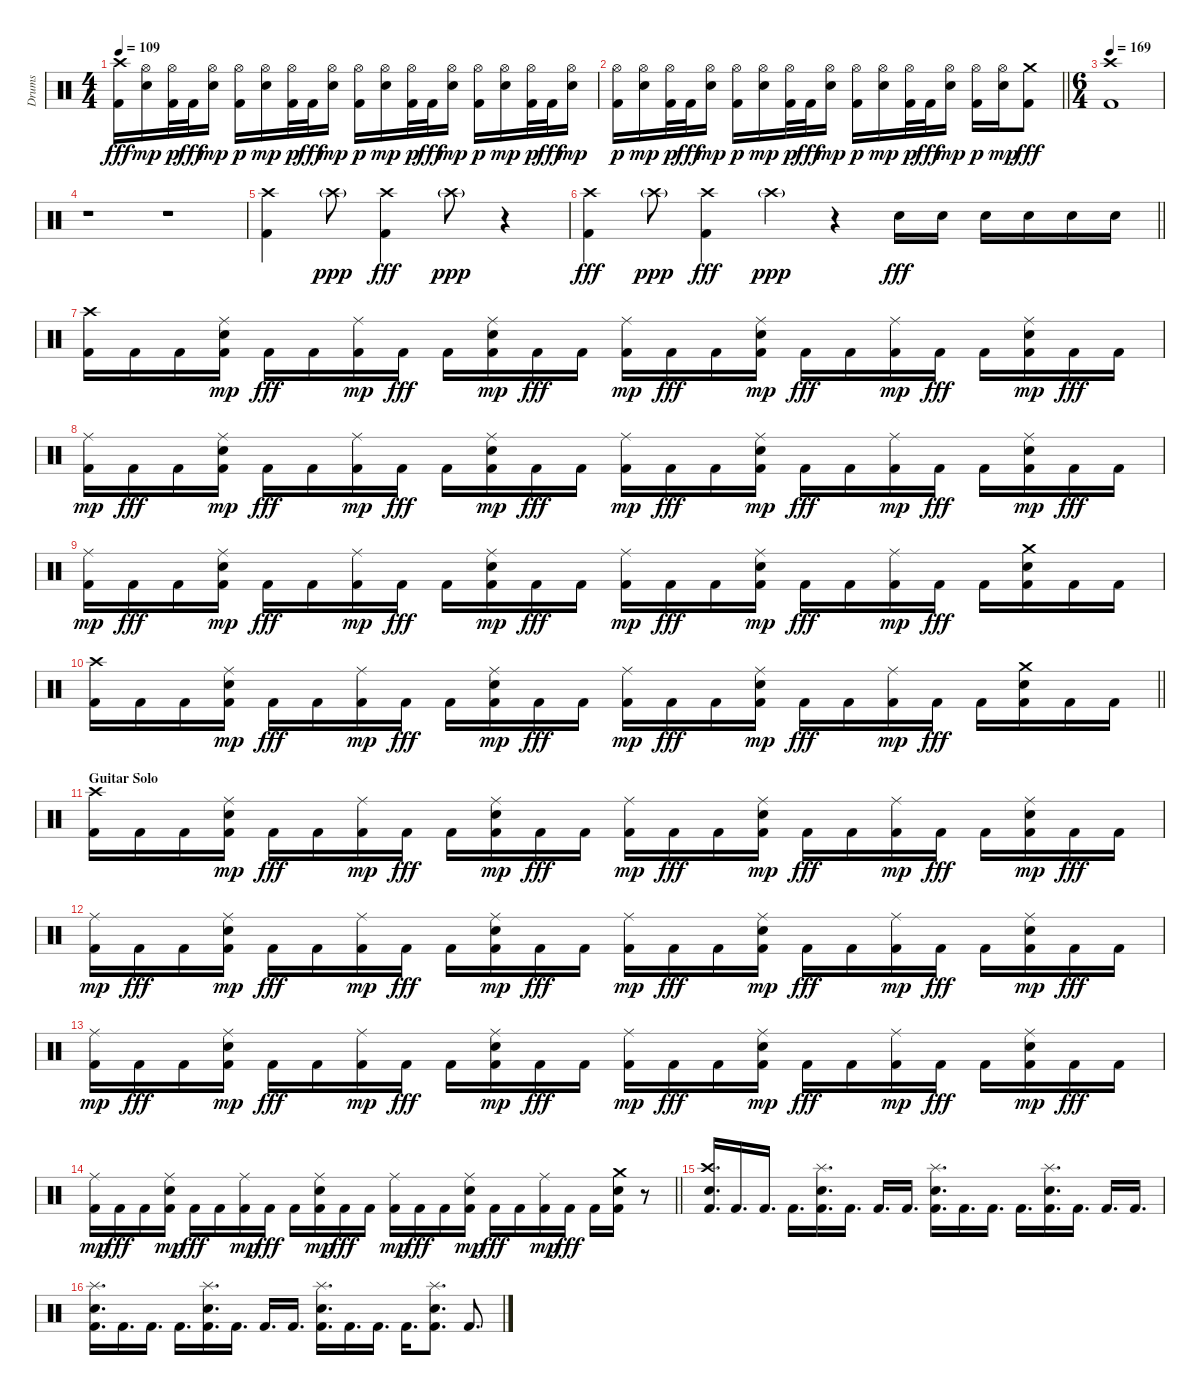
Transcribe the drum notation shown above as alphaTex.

\track ("Drums" "Drums") {instrument percussion}
\staff {score}
\articulation defaults
\ts (4 4)
\tempo 109
\clef neutral
\ks c
("Kick (hit) 2" "Crash high (hit)").16{dy fff} ("Electric Snare (hit)" "Hi-Hat (open)").16{dy mp} ("Kick (hit) 2" "Hi-Hat (open)").32{dy p} "Kick (hit) 2".32{dy fff} ("Electric Snare (hit)" "Hi-Hat (open)").16{dy mp} ("Kick (hit) 2" "Hi-Hat (open)").16{dy p} ("Electric Snare (hit)" "Hi-Hat (open)").16{dy mp} ("Kick (hit) 2" "Hi-Hat (open)").32{dy p} "Kick (hit) 2".32{dy fff} ("Electric Snare (hit)" "Hi-Hat (open)").16{dy mp} ("Kick (hit) 2" "Hi-Hat (open)").16{dy p} ("Electric Snare (hit)" "Hi-Hat (open)").16{dy mp} ("Kick (hit) 2" "Hi-Hat (open)").32{dy p} "Kick (hit) 2".32{dy fff} ("Electric Snare (hit)" "Hi-Hat (open)").16{dy mp} ("Kick (hit) 2" "Hi-Hat (open)").16{dy p} ("Electric Snare (hit)" "Hi-Hat (open)").16{dy mp} ("Kick (hit) 2" "Hi-Hat (open)").32{dy p} "Kick (hit) 2".32{dy fff} ("Electric Snare (hit)" "Hi-Hat (open)").16{dy mp} |
\barLineRight lightlight
("Kick (hit) 2" "Hi-Hat (open)").16{dy p} ("Electric Snare (hit)" "Hi-Hat (open)").16{dy mp} ("Kick (hit) 2" "Hi-Hat (open)").32{dy p} "Kick (hit) 2".32{dy fff} ("Electric Snare (hit)" "Hi-Hat (open)").16{dy mp} ("Kick (hit) 2" "Hi-Hat (open)").16{dy p} ("Electric Snare (hit)" "Hi-Hat (open)").16{dy mp} ("Kick (hit) 2" "Hi-Hat (open)").32{dy p} "Kick (hit) 2".32{dy fff} ("Electric Snare (hit)" "Hi-Hat (open)").16{dy mp} ("Kick (hit) 2" "Hi-Hat (open)").16{dy p} ("Electric Snare (hit)" "Hi-Hat (open)").16{dy mp} ("Kick (hit) 2" "Hi-Hat (open)").32{dy p} "Kick (hit) 2".32{dy fff} ("Electric Snare (hit)" "Hi-Hat (open)").16{dy mp} ("Kick (hit) 2" "Hi-Hat (open)").16{dy p} ("Electric Snare (hit)" "Hi-Hat (open)").16{dy mp} ("Kick (hit) 2" "Crash medium (hit)").8{dy fff} |
\ts (6 4)
\tempo 169
("Kick (hit) 2" "Crash high (hit)").1 |
r.1 r.1 |
("Kick (hit) 2" "Crash high (hit)").4 "Crash high (hit)"{g}.8{dy ppp} ("Kick (hit) 2" "Crash high (hit)").4{dy fff} "Crash high (hit)"{g}.8{dy ppp} r.4 |
\barLineRight lightlight
("Kick (hit) 2" "Crash high (hit)").4{dy fff} "Crash high (hit)"{g}.8{dy ppp} ("Kick (hit) 2" "Crash high (hit)").4{dy fff} "Crash high (hit)"{g}.4{dy ppp} r.4 "Electric Snare (hit)".16{dy fff} "Electric Snare (hit)".16 "Electric Snare (hit)".16 "Electric Snare (hit)".16 "Electric Snare (hit)".16 "Electric Snare (hit)".16 |
("Kick (hit) 2" "Crash high (hit)").16 "Kick (hit) 2".16 "Kick (hit) 2".16 ("Kick (hit) 2" "Electric Snare (hit)" "Ride (middle)").16{dy mp} "Kick (hit) 2".16{dy fff} "Kick (hit) 2".16 ("Kick (hit) 2" "Ride (middle)").16{dy mp} "Kick (hit) 2".16{dy fff} "Kick (hit) 2".16 ("Kick (hit) 2" "Electric Snare (hit)" "Ride (middle)").16{dy mp} "Kick (hit) 2".16{dy fff} "Kick (hit) 2".16 ("Kick (hit) 2" "Ride (middle)").16{dy mp} "Kick (hit) 2".16{dy fff} "Kick (hit) 2".16 ("Kick (hit) 2" "Electric Snare (hit)" "Ride (middle)").16{dy mp} "Kick (hit) 2".16{dy fff} "Kick (hit) 2".16 ("Kick (hit) 2" "Ride (middle)").16{dy mp} "Kick (hit) 2".16{dy fff} "Kick (hit) 2".16 ("Kick (hit) 2" "Electric Snare (hit)" "Ride (middle)").16{dy mp} "Kick (hit) 2".16{dy fff} "Kick (hit) 2".16 |
("Kick (hit) 2" "Ride (middle)").16{dy mp} "Kick (hit) 2".16{dy fff} "Kick (hit) 2".16 ("Kick (hit) 2" "Electric Snare (hit)" "Ride (middle)").16{dy mp} "Kick (hit) 2".16{dy fff} "Kick (hit) 2".16 ("Kick (hit) 2" "Ride (middle)").16{dy mp} "Kick (hit) 2".16{dy fff} "Kick (hit) 2".16 ("Kick (hit) 2" "Electric Snare (hit)" "Ride (middle)").16{dy mp} "Kick (hit) 2".16{dy fff} "Kick (hit) 2".16 ("Kick (hit) 2" "Ride (middle)").16{dy mp} "Kick (hit) 2".16{dy fff} "Kick (hit) 2".16 ("Kick (hit) 2" "Electric Snare (hit)" "Ride (middle)").16{dy mp} "Kick (hit) 2".16{dy fff} "Kick (hit) 2".16 ("Kick (hit) 2" "Ride (middle)").16{dy mp} "Kick (hit) 2".16{dy fff} "Kick (hit) 2".16 ("Kick (hit) 2" "Electric Snare (hit)" "Ride (middle)").16{dy mp} "Kick (hit) 2".16{dy fff} "Kick (hit) 2".16 |
("Kick (hit) 2" "Ride (middle)").16{dy mp} "Kick (hit) 2".16{dy fff} "Kick (hit) 2".16 ("Kick (hit) 2" "Electric Snare (hit)" "Ride (middle)").16{dy mp} "Kick (hit) 2".16{dy fff} "Kick (hit) 2".16 ("Kick (hit) 2" "Ride (middle)").16{dy mp} "Kick (hit) 2".16{dy fff} "Kick (hit) 2".16 ("Kick (hit) 2" "Electric Snare (hit)" "Ride (middle)").16{dy mp} "Kick (hit) 2".16{dy fff} "Kick (hit) 2".16 ("Kick (hit) 2" "Ride (middle)").16{dy mp} "Kick (hit) 2".16{dy fff} "Kick (hit) 2".16 ("Kick (hit) 2" "Electric Snare (hit)" "Ride (middle)").16{dy mp} "Kick (hit) 2".16{dy fff} "Kick (hit) 2".16 ("Kick (hit) 2" "Ride (middle)").16{dy mp} "Kick (hit) 2".16{dy fff} "Kick (hit) 2".16 ("Kick (hit) 2" "Electric Snare (hit)" "Crash medium (hit)").16 "Kick (hit) 2".16 "Kick (hit) 2".16 |
\barLineRight lightlight
("Kick (hit) 2" "Crash high (hit)").16 "Kick (hit) 2".16 "Kick (hit) 2".16 ("Kick (hit) 2" "Electric Snare (hit)" "Ride (middle)").16{dy mp} "Kick (hit) 2".16{dy fff} "Kick (hit) 2".16 ("Kick (hit) 2" "Ride (middle)").16{dy mp} "Kick (hit) 2".16{dy fff} "Kick (hit) 2".16 ("Kick (hit) 2" "Electric Snare (hit)" "Ride (middle)").16{dy mp} "Kick (hit) 2".16{dy fff} "Kick (hit) 2".16 ("Kick (hit) 2" "Ride (middle)").16{dy mp} "Kick (hit) 2".16{dy fff} "Kick (hit) 2".16 ("Kick (hit) 2" "Electric Snare (hit)" "Ride (middle)").16{dy mp} "Kick (hit) 2".16{dy fff} "Kick (hit) 2".16 ("Kick (hit) 2" "Ride (middle)").16{dy mp} "Kick (hit) 2".16{dy fff} "Kick (hit) 2".16 ("Kick (hit) 2" "Electric Snare (hit)" "Crash medium (hit)").16 "Kick (hit) 2".16 "Kick (hit) 2".16 |
\section ("" "Guitar Solo")
("Kick (hit) 2" "Crash high (hit)").16 "Kick (hit) 2".16 "Kick (hit) 2".16 ("Kick (hit) 2" "Electric Snare (hit)" "Ride (middle)").16{dy mp} "Kick (hit) 2".16{dy fff} "Kick (hit) 2".16 ("Kick (hit) 2" "Ride (middle)").16{dy mp} "Kick (hit) 2".16{dy fff} "Kick (hit) 2".16 ("Kick (hit) 2" "Electric Snare (hit)" "Ride (middle)").16{dy mp} "Kick (hit) 2".16{dy fff} "Kick (hit) 2".16 ("Kick (hit) 2" "Ride (middle)").16{dy mp} "Kick (hit) 2".16{dy fff} "Kick (hit) 2".16 ("Kick (hit) 2" "Electric Snare (hit)" "Ride (middle)").16{dy mp} "Kick (hit) 2".16{dy fff} "Kick (hit) 2".16 ("Kick (hit) 2" "Ride (middle)").16{dy mp} "Kick (hit) 2".16{dy fff} "Kick (hit) 2".16 ("Kick (hit) 2" "Electric Snare (hit)" "Ride (middle)").16{dy mp} "Kick (hit) 2".16{dy fff} "Kick (hit) 2".16 |
("Kick (hit) 2" "Ride (middle)").16{dy mp} "Kick (hit) 2".16{dy fff} "Kick (hit) 2".16 ("Kick (hit) 2" "Electric Snare (hit)" "Ride (middle)").16{dy mp} "Kick (hit) 2".16{dy fff} "Kick (hit) 2".16 ("Kick (hit) 2" "Ride (middle)").16{dy mp} "Kick (hit) 2".16{dy fff} "Kick (hit) 2".16 ("Kick (hit) 2" "Electric Snare (hit)" "Ride (middle)").16{dy mp} "Kick (hit) 2".16{dy fff} "Kick (hit) 2".16 ("Kick (hit) 2" "Ride (middle)").16{dy mp} "Kick (hit) 2".16{dy fff} "Kick (hit) 2".16 ("Kick (hit) 2" "Electric Snare (hit)" "Ride (middle)").16{dy mp} "Kick (hit) 2".16{dy fff} "Kick (hit) 2".16 ("Kick (hit) 2" "Ride (middle)").16{dy mp} "Kick (hit) 2".16{dy fff} "Kick (hit) 2".16 ("Kick (hit) 2" "Electric Snare (hit)" "Ride (middle)").16{dy mp} "Kick (hit) 2".16{dy fff} "Kick (hit) 2".16 |
("Kick (hit) 2" "Ride (middle)").16{dy mp} "Kick (hit) 2".16{dy fff} "Kick (hit) 2".16 ("Kick (hit) 2" "Electric Snare (hit)" "Ride (middle)").16{dy mp} "Kick (hit) 2".16{dy fff} "Kick (hit) 2".16 ("Kick (hit) 2" "Ride (middle)").16{dy mp} "Kick (hit) 2".16{dy fff} "Kick (hit) 2".16 ("Kick (hit) 2" "Electric Snare (hit)" "Ride (middle)").16{dy mp} "Kick (hit) 2".16{dy fff} "Kick (hit) 2".16 ("Kick (hit) 2" "Ride (middle)").16{dy mp} "Kick (hit) 2".16{dy fff} "Kick (hit) 2".16 ("Kick (hit) 2" "Electric Snare (hit)" "Ride (middle)").16{dy mp} "Kick (hit) 2".16{dy fff} "Kick (hit) 2".16 ("Kick (hit) 2" "Ride (middle)").16{dy mp} "Kick (hit) 2".16{dy fff} "Kick (hit) 2".16 ("Kick (hit) 2" "Electric Snare (hit)" "Ride (middle)").16{dy mp} "Kick (hit) 2".16{dy fff} "Kick (hit) 2".16 |
\barLineRight lightlight
("Kick (hit) 2" "Ride (middle)").16{dy mp} "Kick (hit) 2".16{dy fff} "Kick (hit) 2".16 ("Kick (hit) 2" "Electric Snare (hit)" "Ride (middle)").16{dy mp} "Kick (hit) 2".16{dy fff} "Kick (hit) 2".16 ("Kick (hit) 2" "Ride (middle)").16{dy mp} "Kick (hit) 2".16{dy fff} "Kick (hit) 2".16 ("Kick (hit) 2" "Electric Snare (hit)" "Ride (middle)").16{dy mp} "Kick (hit) 2".16{dy fff} "Kick (hit) 2".16 ("Kick (hit) 2" "Ride (middle)").16{dy mp} "Kick (hit) 2".16{dy fff} "Kick (hit) 2".16 ("Kick (hit) 2" "Electric Snare (hit)" "Ride (middle)").16{dy mp} "Kick (hit) 2".16{dy fff} "Kick (hit) 2".16 ("Kick (hit) 2" "Ride (middle)").16{dy mp} "Kick (hit) 2".16{dy fff} "Kick (hit) 2".16 ("Kick (hit) 2" "Electric Snare (hit)" "Crash medium (hit)").16 r.8 |
("Kick (hit) 2" "Electric Snare (hit)" "Crash high (hit)").16{d} "Kick (hit) 2".16{d} "Kick (hit) 2".16{d} "Kick (hit) 2".16{d} ("Kick (hit) 2" "Electric Snare (hit)" "Splash (hit)").16{d} "Kick (hit) 2".16{d} "Kick (hit) 2".16{d} "Kick (hit) 2".16{d} ("Kick (hit) 2" "Electric Snare (hit)" "Splash (hit)").16{d} "Kick (hit) 2".16{d} "Kick (hit) 2".16{d} "Kick (hit) 2".16{d} ("Kick (hit) 2" "Electric Snare (hit)" "Splash (hit)").16{d} "Kick (hit) 2".16{d} "Kick (hit) 2".16{d} "Kick (hit) 2".16{d} |
("Kick (hit) 2" "Electric Snare (hit)" "Splash (hit)").16{d} "Kick (hit) 2".16{d} "Kick (hit) 2".16{d} "Kick (hit) 2".16{d} ("Kick (hit) 2" "Electric Snare (hit)" "Splash (hit)").16{d} "Kick (hit) 2".16{d} "Kick (hit) 2".16{d} "Kick (hit) 2".16{d} ("Kick (hit) 2" "Electric Snare (hit)" "Splash (hit)").16{d} "Kick (hit) 2".16{d} "Kick (hit) 2".16{d} "Kick (hit) 2".16{d} ("Kick (hit) 2" "Electric Snare (hit)" "Splash (hit)").8{d} "Kick (hit) 2".8{d}
